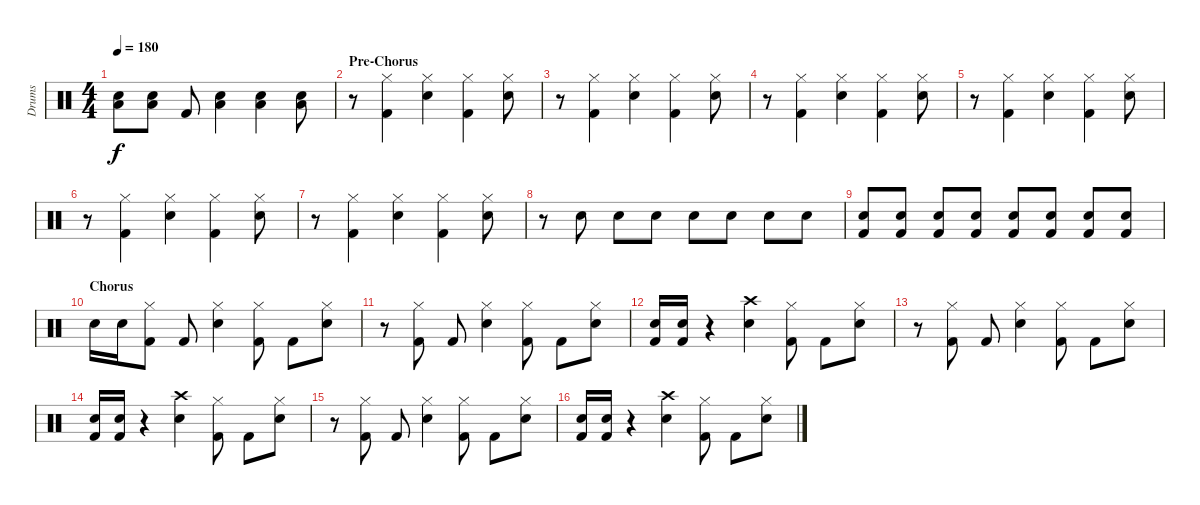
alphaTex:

\track ("Drums" "Drums") {instrument percussion}
\staff {score}
\articulation defaults
\ts (4 4)
\tempo 180
\clef neutral
\ks c
("Snare (hit) 2" "Low Floor Tom (hit)").8{dy f} ("Snare (hit) 2" "Low Floor Tom (hit)").8 "Kick (hit) 2".8 ("Snare (hit) 2" "Low Floor Tom (hit)").4 ("Snare (hit) 2" "Low Floor Tom (hit)").4 ("Snare (hit) 2" "Low Floor Tom (hit)").8 |
\section ("" "Pre-Chorus")
r.8 ("Hi-Hat (closed)" "Kick (hit) 2").4 ("Hi-Hat (closed)" "Snare (hit) 2").4 ("Hi-Hat (closed)" "Kick (hit) 2").4 ("Hi-Hat (closed)" "Snare (hit) 2").8 |
r.8 ("Hi-Hat (closed)" "Kick (hit) 2").4 ("Hi-Hat (closed)" "Snare (hit) 2").4 ("Hi-Hat (closed)" "Kick (hit) 2").4 ("Hi-Hat (closed)" "Snare (hit) 2").8 |
r.8 ("Hi-Hat (closed)" "Kick (hit) 2").4 ("Hi-Hat (closed)" "Snare (hit) 2").4 ("Hi-Hat (closed)" "Kick (hit) 2").4 ("Hi-Hat (closed)" "Snare (hit) 2").8 |
r.8 ("Hi-Hat (closed)" "Kick (hit) 2").4 ("Hi-Hat (closed)" "Snare (hit) 2").4 ("Hi-Hat (closed)" "Kick (hit) 2").4 ("Hi-Hat (closed)" "Snare (hit) 2").8 |
r.8 ("Hi-Hat (closed)" "Kick (hit) 2").4 ("Hi-Hat (closed)" "Snare (hit) 2").4 ("Hi-Hat (closed)" "Kick (hit) 2").4 ("Hi-Hat (closed)" "Snare (hit) 2").8 |
r.8 ("Hi-Hat (closed)" "Kick (hit) 2").4 ("Hi-Hat (closed)" "Snare (hit) 2").4 ("Hi-Hat (closed)" "Kick (hit) 2").4 ("Hi-Hat (closed)" "Snare (hit) 2").8 |
r.8 "Snare (hit) 2".8 "Snare (hit) 2".8 "Snare (hit) 2".8 "Snare (hit) 2".8 "Snare (hit) 2".8 "Snare (hit) 2".8 "Snare (hit) 2".8 |
("Snare (hit) 2" "Kick (hit) 2").8 ("Snare (hit) 2" "Kick (hit) 2").8 ("Snare (hit) 2" "Kick (hit) 2").8 ("Snare (hit) 2" "Kick (hit) 2").8 ("Snare (hit) 2" "Kick (hit) 2").8 ("Snare (hit) 2" "Kick (hit) 2").8 ("Snare (hit) 2" "Kick (hit) 2").8 ("Snare (hit) 2" "Kick (hit) 2").8 |
\section ("" "Chorus")
"Snare (hit) 2".16 "Snare (hit) 2".16 ("Hi-Hat (closed)" "Kick (hit) 2").8 "Kick (hit) 2".8 ("Hi-Hat (closed)" "Snare (hit) 2").4 ("Hi-Hat (closed)" "Kick (hit) 2").8 "Kick (hit) 2".8 ("Hi-Hat (closed)" "Snare (hit) 2").8 |
r.8 ("Hi-Hat (closed)" "Kick (hit) 2").8 "Kick (hit) 2".8 ("Hi-Hat (closed)" "Snare (hit) 2").4 ("Hi-Hat (closed)" "Kick (hit) 2").8 "Kick (hit) 2".8 ("Hi-Hat (closed)" "Snare (hit) 2").8 |
("Snare (hit) 2" "Kick (hit) 2").16 ("Snare (hit) 2" "Kick (hit) 2").16 r.4 ("Crash high (hit)" "Snare (hit) 2").4 ("Hi-Hat (closed)" "Kick (hit) 2").8 "Kick (hit) 2".8 ("Hi-Hat (closed)" "Snare (hit) 2").8 |
r.8 ("Hi-Hat (closed)" "Kick (hit) 2").8 "Kick (hit) 2".8 ("Hi-Hat (closed)" "Snare (hit) 2").4 ("Hi-Hat (closed)" "Kick (hit) 2").8 "Kick (hit) 2".8 ("Hi-Hat (closed)" "Snare (hit) 2").8 |
("Snare (hit) 2" "Kick (hit) 2").16 ("Snare (hit) 2" "Kick (hit) 2").16 r.4 ("Crash high (hit)" "Snare (hit) 2").4 ("Hi-Hat (closed)" "Kick (hit) 2").8 "Kick (hit) 2".8 ("Hi-Hat (closed)" "Snare (hit) 2").8 |
r.8 ("Hi-Hat (closed)" "Kick (hit) 2").8 "Kick (hit) 2".8 ("Hi-Hat (closed)" "Snare (hit) 2").4 ("Hi-Hat (closed)" "Kick (hit) 2").8 "Kick (hit) 2".8 ("Hi-Hat (closed)" "Snare (hit) 2").8 |
("Snare (hit) 2" "Kick (hit) 2").16 ("Snare (hit) 2" "Kick (hit) 2").16 r.4 ("Crash high (hit)" "Snare (hit) 2").4 ("Hi-Hat (closed)" "Kick (hit) 2").8 "Kick (hit) 2".8 ("Hi-Hat (closed)" "Snare (hit) 2").8
